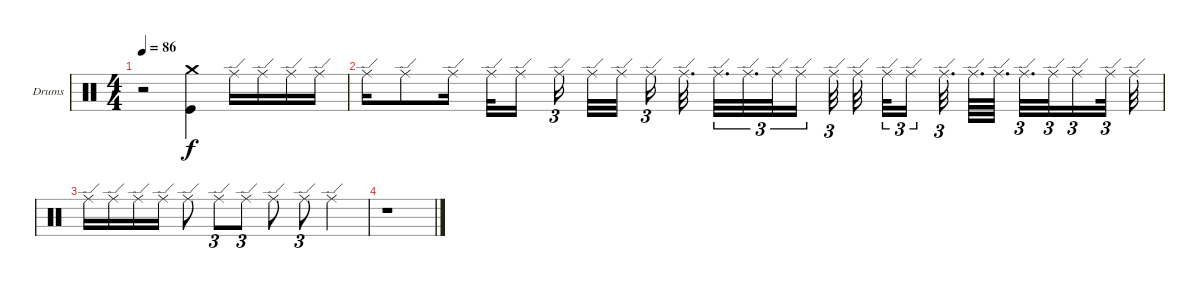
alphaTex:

\bracketExtendMode groupsimilarinstruments
\firstSystemTrackNameOrientation horizontal
\otherSystemsTrackNameOrientation horizontal
\track ("Drumkit" "Drums") {instrument percussion}
\staff {score}
\articulation defaults
\ts (4 4)
\tempo 86
\clef neutral
\ks c
r.2{dy f} ("Crash medium (hit)" "Kick (hit)").4 "Ride (edge)".16 "Ride (edge)".16 "Ride (edge)".16 "Ride (edge)".16 |
"Ride (edge)".16 "Ride (edge)".8 "Ride (edge)".16 "Ride (edge)".32 "Ride (edge)".16 "Ride (edge)".16{tu (3 2)} "Ride (edge)".32 "Ride (edge)".32 "Ride (edge)".16{tu (3 2)} "Ride (edge)".32{d} "Ride (edge)".32{d tu (3 2)} "Ride (edge)".32{d tu (3 2)} "Ride (edge)".32{tu (3 2)} "Ride (edge)".16{tu (3 2)} "Ride (edge)".32{tu (3 2)} "Ride (edge)".32 "Ride (edge)".32{tu (3 2)} "Ride (edge)".16{tu (3 2)} "Ride (edge)".32{d tu (3 2)} "Ride (edge)".64{d} "Ride (edge)".64{d} "Ride (edge)".32{d tu (3 2)} "Ride (edge)".32{tu (3 2)} "Ride (edge)".16{tu (3 2)} "Ride (edge)".32{tu (3 2)} "Ride (edge)".32 |
"Ride (edge)".16 "Ride (edge)".16 "Ride (edge)".16 "Ride (edge)".16 "Ride (edge)".8 "Ride (edge)".8{tu (3 2)} "Ride (edge)".8{tu (3 2)} "Ride (edge)".8 "Ride (edge)".8{tu (3 2)} "Ride (edge)".4 |
r.1
